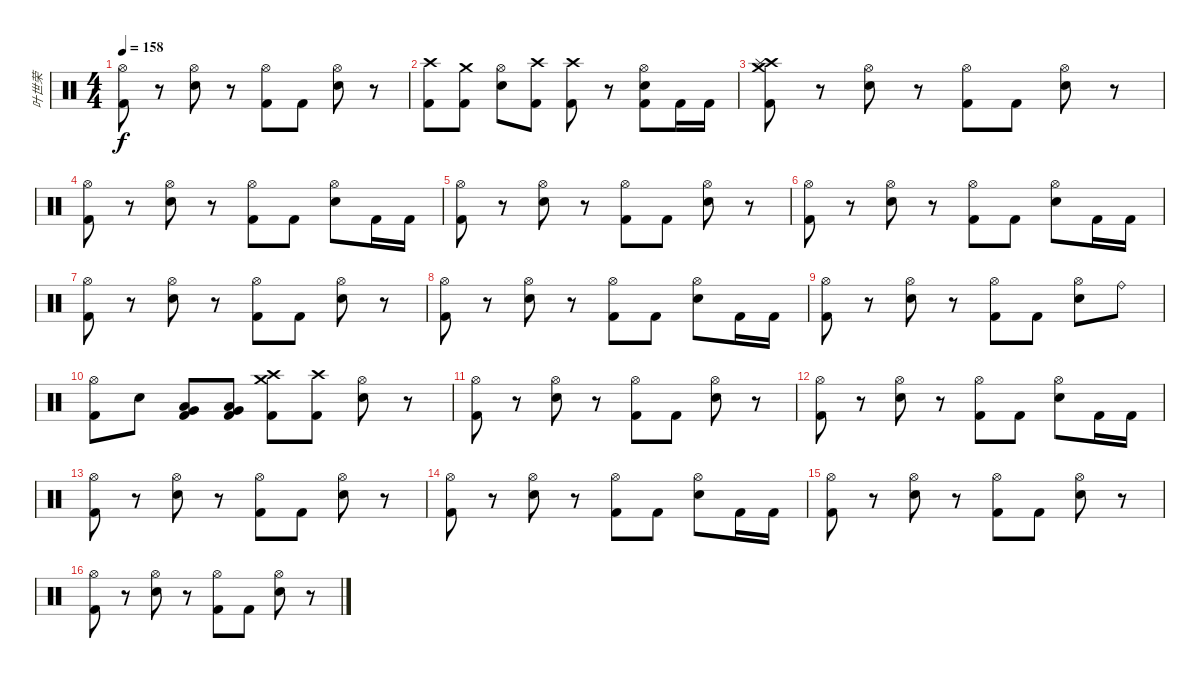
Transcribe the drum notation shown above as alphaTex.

\track ("叶世荣" "叶世荣") {instrument percussion}
\staff {score}
\articulation defaults
\ts (4 4)
\tempo 158
\clef neutral
\ks c
("Hi-Hat (open)" "Kick (hit) 2").8{dy f} r.8 ("Hi-Hat (open)" "Snare (hit) 2").8 r.8 ("Hi-Hat (open)" "Kick (hit) 2").8 "Kick (hit) 2".8 ("Hi-Hat (open)" "Snare (hit) 2").8 r.8 |
("Crash high (hit)" "Kick (hit) 2").8 ("Crash medium (hit)" "Kick (hit) 2").8 ("Hi-Hat (open)" "Snare (hit) 2").8 ("Crash high (hit)" "Kick (hit) 2").8 ("Crash high (hit)" "Kick (hit) 2").8 r.8 ("Hi-Hat (open)" "Snare (hit) 2" "Kick (hit) 2").8 "Kick (hit) 2".16 "Kick (hit) 2".16 |
("Crash medium (hit)" "Crash high (hit)" "Splash (hit)" "Kick (hit) 2").8 r.8 ("Hi-Hat (open)" "Snare (hit) 2").8 r.8 ("Hi-Hat (open)" "Kick (hit) 2").8 "Kick (hit) 2".8 ("Hi-Hat (open)" "Snare (hit) 2").8 r.8 |
("Hi-Hat (open)" "Kick (hit) 2").8 r.8 ("Hi-Hat (open)" "Snare (hit) 2").8 r.8 ("Hi-Hat (open)" "Kick (hit) 2").8 "Kick (hit) 2".8 ("Hi-Hat (open)" "Snare (hit) 2").8 "Kick (hit) 2".16 "Kick (hit) 2".16 |
("Hi-Hat (open)" "Kick (hit) 2").8 r.8 ("Hi-Hat (open)" "Snare (hit) 2").8 r.8 ("Hi-Hat (open)" "Kick (hit) 2").8 "Kick (hit) 2".8 ("Hi-Hat (open)" "Snare (hit) 2").8 r.8 |
("Hi-Hat (open)" "Kick (hit) 2").8 r.8 ("Hi-Hat (open)" "Snare (hit) 2").8 r.8 ("Hi-Hat (open)" "Kick (hit) 2").8 "Kick (hit) 2".8 ("Hi-Hat (open)" "Snare (hit) 2").8 "Kick (hit) 2".16 "Kick (hit) 2".16 |
("Hi-Hat (open)" "Kick (hit) 2").8 r.8 ("Hi-Hat (open)" "Snare (hit) 2").8 r.8 ("Hi-Hat (open)" "Kick (hit) 2").8 "Kick (hit) 2".8 ("Hi-Hat (open)" "Snare (hit) 2").8 r.8 |
("Hi-Hat (open)" "Kick (hit) 2").8 r.8 ("Hi-Hat (open)" "Snare (hit) 2").8 r.8 ("Hi-Hat (open)" "Kick (hit) 2").8 "Kick (hit) 2".8 ("Hi-Hat (open)" "Snare (hit) 2").8 "Kick (hit) 2".16 "Kick (hit) 2".16 |
("Hi-Hat (open)" "Kick (hit) 2").8 r.8 ("Hi-Hat (open)" "Snare (hit) 2").8 r.8 ("Hi-Hat (open)" "Kick (hit) 2").8 "Kick (hit) 2".8 ("Hi-Hat (open)" "Snare (hit) 2").8 "Ride (bell)".8 |
("Hi-Hat (open)" "Kick (hit) 2").8 "Snare (hit) 2".8 ("Low Tom (hit)" "Very Low Tom (hit)" "Kick (hit) 2").8 ("Very Low Tom (hit)" "Low Floor Tom (hit)" "Kick (hit) 2").8 ("Crash high (hit)" "Crash medium (hit)" "Kick (hit) 2").8 ("Crash high (hit)" "Kick (hit) 2").8 ("Hi-Hat (open)" "Snare (hit) 2").8 r.8 |
("Hi-Hat (open)" "Kick (hit) 2").8 r.8 ("Hi-Hat (open)" "Snare (hit) 2").8 r.8 ("Hi-Hat (open)" "Kick (hit) 2").8 "Kick (hit) 2".8 ("Hi-Hat (open)" "Snare (hit) 2").8 r.8 |
("Hi-Hat (open)" "Kick (hit) 2").8 r.8 ("Hi-Hat (open)" "Snare (hit) 2").8 r.8 ("Hi-Hat (open)" "Kick (hit) 2").8 "Kick (hit) 2".8 ("Hi-Hat (open)" "Snare (hit) 2").8 "Kick (hit) 2".16 "Kick (hit) 2".16 |
("Hi-Hat (open)" "Kick (hit) 2").8 r.8 ("Hi-Hat (open)" "Snare (hit) 2").8 r.8 ("Hi-Hat (open)" "Kick (hit) 2").8 "Kick (hit) 2".8 ("Hi-Hat (open)" "Snare (hit) 2").8 r.8 |
("Hi-Hat (open)" "Kick (hit) 2").8 r.8 ("Hi-Hat (open)" "Snare (hit) 2").8 r.8 ("Hi-Hat (open)" "Kick (hit) 2").8 "Kick (hit) 2".8 ("Hi-Hat (open)" "Snare (hit) 2").8 "Kick (hit) 2".16 "Kick (hit) 2".16 |
("Hi-Hat (open)" "Kick (hit) 2").8 r.8 ("Hi-Hat (open)" "Snare (hit) 2").8 r.8 ("Hi-Hat (open)" "Kick (hit) 2").8 "Kick (hit) 2".8 ("Hi-Hat (open)" "Snare (hit) 2").8 r.8 |
("Hi-Hat (open)" "Kick (hit) 2").8 r.8 ("Hi-Hat (open)" "Snare (hit) 2").8 r.8 ("Hi-Hat (open)" "Kick (hit) 2").8 "Kick (hit) 2".8 ("Hi-Hat (open)" "Snare (hit) 2").8 r.8
